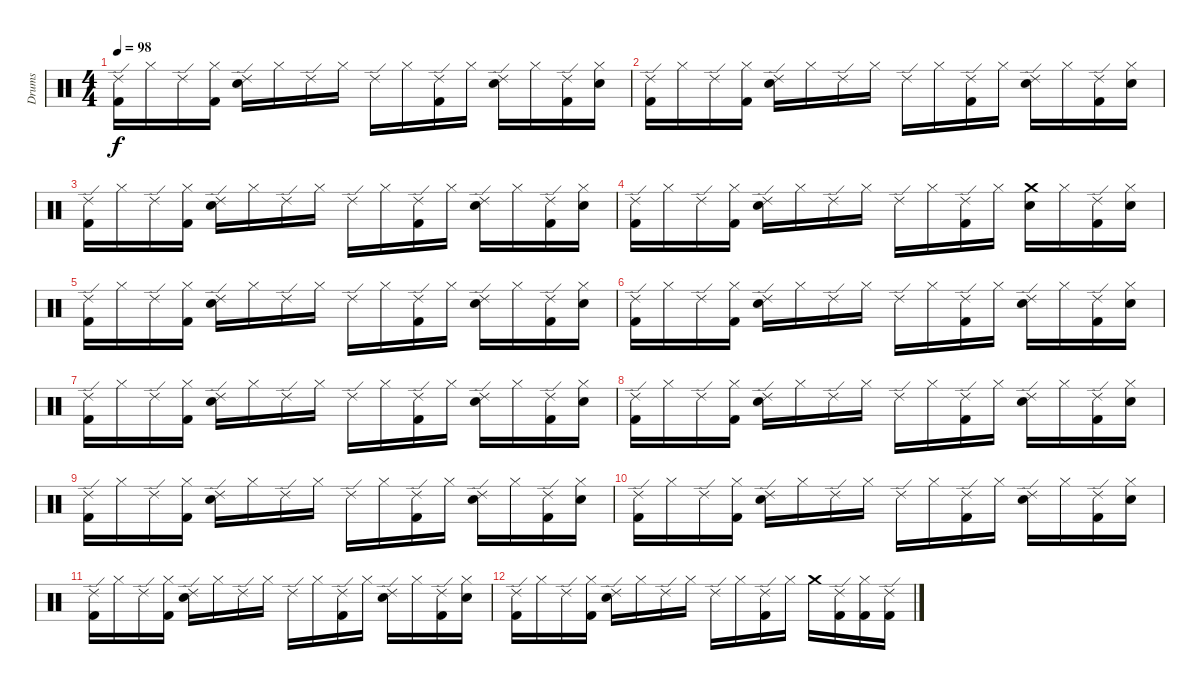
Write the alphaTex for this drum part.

\track ("Drums" "Drums") {instrument percussion}
\staff {score}
\articulation defaults
\ts (4 4)
\tempo 98
\clef neutral
\ks c
("Ride (edge) 2" "Kick (hit) 2").16{dy f} "Hi-Hat (closed)".16 "Ride (edge) 2".16 ("Hi-Hat (closed)" "Kick (hit) 2").16 ("Ride (edge) 2" "Electric Snare (hit)").16 "Hi-Hat (closed)".16 "Ride (edge) 2".16 "Hi-Hat (closed)".16 "Ride (edge) 2".16 "Hi-Hat (closed)".16 ("Ride (edge) 2" "Kick (hit) 2").16 "Hi-Hat (closed)".16 ("Ride (edge) 2" "Electric Snare (hit)").16 "Hi-Hat (closed)".16 ("Ride (edge) 2" "Kick (hit) 2").16 ("Hi-Hat (closed)" "Electric Snare (hit)").16 |
("Ride (edge) 2" "Kick (hit) 2").16 "Hi-Hat (closed)".16 "Ride (edge) 2".16 ("Hi-Hat (closed)" "Kick (hit) 2").16 ("Ride (edge) 2" "Electric Snare (hit)").16 "Hi-Hat (closed)".16 "Ride (edge) 2".16 "Hi-Hat (closed)".16 "Ride (edge) 2".16 "Hi-Hat (closed)".16 ("Ride (edge) 2" "Kick (hit) 2").16 "Hi-Hat (closed)".16 ("Ride (edge) 2" "Electric Snare (hit)").16 "Hi-Hat (closed)".16 ("Ride (edge) 2" "Kick (hit) 2").16 ("Hi-Hat (closed)" "Electric Snare (hit)").16 |
("Ride (edge) 2" "Kick (hit) 2").16 "Hi-Hat (closed)".16 "Ride (edge) 2".16 ("Hi-Hat (closed)" "Kick (hit) 2").16 ("Ride (edge) 2" "Electric Snare (hit)").16 "Hi-Hat (closed)".16 "Ride (edge) 2".16 "Hi-Hat (closed)".16 "Ride (edge) 2".16 "Hi-Hat (closed)".16 ("Ride (edge) 2" "Kick (hit) 2").16 "Hi-Hat (closed)".16 ("Ride (edge) 2" "Electric Snare (hit)").16 "Hi-Hat (closed)".16 ("Ride (edge) 2" "Kick (hit) 2").16 ("Hi-Hat (closed)" "Electric Snare (hit)").16 |
("Ride (edge) 2" "Kick (hit) 2").16 "Hi-Hat (closed)".16 "Ride (edge) 2".16 ("Hi-Hat (closed)" "Kick (hit) 2").16 ("Ride (edge) 2" "Electric Snare (hit)").16 "Hi-Hat (closed)".16 "Ride (edge) 2".16 "Hi-Hat (closed)".16 "Ride (edge) 2".16 "Hi-Hat (closed)".16 ("Ride (edge) 2" "Kick (hit) 2").16 "Hi-Hat (closed)".16 ("Crash medium (hit)" "Electric Snare (hit)").16 "Hi-Hat (closed)".16 ("Ride (edge) 2" "Kick (hit) 2").16 ("Hi-Hat (closed)" "Electric Snare (hit)").16 |
("Ride (edge) 2" "Kick (hit) 2").16 "Hi-Hat (closed)".16 "Ride (edge) 2".16 ("Hi-Hat (closed)" "Kick (hit) 2").16 ("Ride (edge) 2" "Electric Snare (hit)").16 "Hi-Hat (closed)".16 "Ride (edge) 2".16 "Hi-Hat (closed)".16 "Ride (edge) 2".16 "Hi-Hat (closed)".16 ("Ride (edge) 2" "Kick (hit) 2").16 "Hi-Hat (closed)".16 ("Ride (edge) 2" "Electric Snare (hit)").16 "Hi-Hat (closed)".16 ("Ride (edge) 2" "Kick (hit) 2").16 ("Hi-Hat (closed)" "Electric Snare (hit)").16 |
("Ride (edge) 2" "Kick (hit) 2").16 "Hi-Hat (closed)".16 "Ride (edge) 2".16 ("Hi-Hat (closed)" "Kick (hit) 2").16 ("Ride (edge) 2" "Electric Snare (hit)").16 "Hi-Hat (closed)".16 "Ride (edge) 2".16 "Hi-Hat (closed)".16 "Ride (edge) 2".16 "Hi-Hat (closed)".16 ("Ride (edge) 2" "Kick (hit) 2").16 "Hi-Hat (closed)".16 ("Ride (edge) 2" "Electric Snare (hit)").16 "Hi-Hat (closed)".16 ("Ride (edge) 2" "Kick (hit) 2").16 ("Hi-Hat (closed)" "Electric Snare (hit)").16 |
("Ride (edge) 2" "Kick (hit) 2").16 "Hi-Hat (closed)".16 "Ride (edge) 2".16 ("Hi-Hat (closed)" "Kick (hit) 2").16 ("Ride (edge) 2" "Electric Snare (hit)").16 "Hi-Hat (closed)".16 "Ride (edge) 2".16 "Hi-Hat (closed)".16 "Ride (edge) 2".16 "Hi-Hat (closed)".16 ("Ride (edge) 2" "Kick (hit) 2").16 "Hi-Hat (closed)".16 ("Ride (edge) 2" "Electric Snare (hit)").16 "Hi-Hat (closed)".16 ("Ride (edge) 2" "Kick (hit) 2").16 ("Hi-Hat (closed)" "Electric Snare (hit)").16 |
("Ride (edge) 2" "Kick (hit) 2").16 "Hi-Hat (closed)".16 "Ride (edge) 2".16 ("Hi-Hat (closed)" "Kick (hit) 2").16 ("Ride (edge) 2" "Electric Snare (hit)").16 "Hi-Hat (closed)".16 "Ride (edge) 2".16 "Hi-Hat (closed)".16 "Ride (edge) 2".16 "Hi-Hat (closed)".16 ("Ride (edge) 2" "Kick (hit) 2").16 "Hi-Hat (closed)".16 ("Ride (edge) 2" "Electric Snare (hit)").16 "Hi-Hat (closed)".16 ("Ride (edge) 2" "Kick (hit) 2").16 ("Hi-Hat (closed)" "Electric Snare (hit)").16 |
("Ride (edge) 2" "Kick (hit) 2").16 "Hi-Hat (closed)".16 "Ride (edge) 2".16 ("Hi-Hat (closed)" "Kick (hit) 2").16 ("Ride (edge) 2" "Electric Snare (hit)").16 "Hi-Hat (closed)".16 "Ride (edge) 2".16 "Hi-Hat (closed)".16 "Ride (edge) 2".16 "Hi-Hat (closed)".16 ("Ride (edge) 2" "Kick (hit) 2").16 "Hi-Hat (closed)".16 ("Ride (edge) 2" "Electric Snare (hit)").16 "Hi-Hat (closed)".16 ("Ride (edge) 2" "Kick (hit) 2").16 ("Hi-Hat (closed)" "Electric Snare (hit)").16 |
("Ride (edge) 2" "Kick (hit) 2").16 "Hi-Hat (closed)".16 "Ride (edge) 2".16 ("Hi-Hat (closed)" "Kick (hit) 2").16 ("Ride (edge) 2" "Electric Snare (hit)").16 "Hi-Hat (closed)".16 "Ride (edge) 2".16 "Hi-Hat (closed)".16 "Ride (edge) 2".16 "Hi-Hat (closed)".16 ("Ride (edge) 2" "Kick (hit) 2").16 "Hi-Hat (closed)".16 ("Ride (edge) 2" "Electric Snare (hit)").16 "Hi-Hat (closed)".16 ("Ride (edge) 2" "Kick (hit) 2").16 ("Hi-Hat (closed)" "Electric Snare (hit)").16 |
("Ride (edge) 2" "Kick (hit) 2").16 "Hi-Hat (closed)".16 "Ride (edge) 2".16 ("Hi-Hat (closed)" "Kick (hit) 2").16 ("Ride (edge) 2" "Electric Snare (hit)").16 "Hi-Hat (closed)".16 "Ride (edge) 2".16 "Hi-Hat (closed)".16 "Ride (edge) 2".16 "Hi-Hat (closed)".16 ("Ride (edge) 2" "Kick (hit) 2").16 "Hi-Hat (closed)".16 ("Ride (edge) 2" "Electric Snare (hit)").16 "Hi-Hat (closed)".16 ("Ride (edge) 2" "Kick (hit) 2").16 ("Hi-Hat (closed)" "Electric Snare (hit)").16 |
("Ride (edge) 2" "Kick (hit) 2").16 "Hi-Hat (closed)".16 "Ride (edge) 2".16 ("Hi-Hat (closed)" "Kick (hit) 2").16 ("Ride (edge) 2" "Electric Snare (hit)").16 "Hi-Hat (closed)".16 "Ride (edge) 2".16 "Hi-Hat (closed)".16 "Ride (edge) 2".16 "Hi-Hat (closed)".16 ("Ride (edge) 2" "Kick (hit) 2").16 "Hi-Hat (closed)".16 "Crash medium (hit)".16 ("Ride (edge) 2" "Kick (hit) 2").16 ("Hi-Hat (closed)" "Kick (hit) 2").16 ("Ride (edge) 2" "Kick (hit) 2").16
